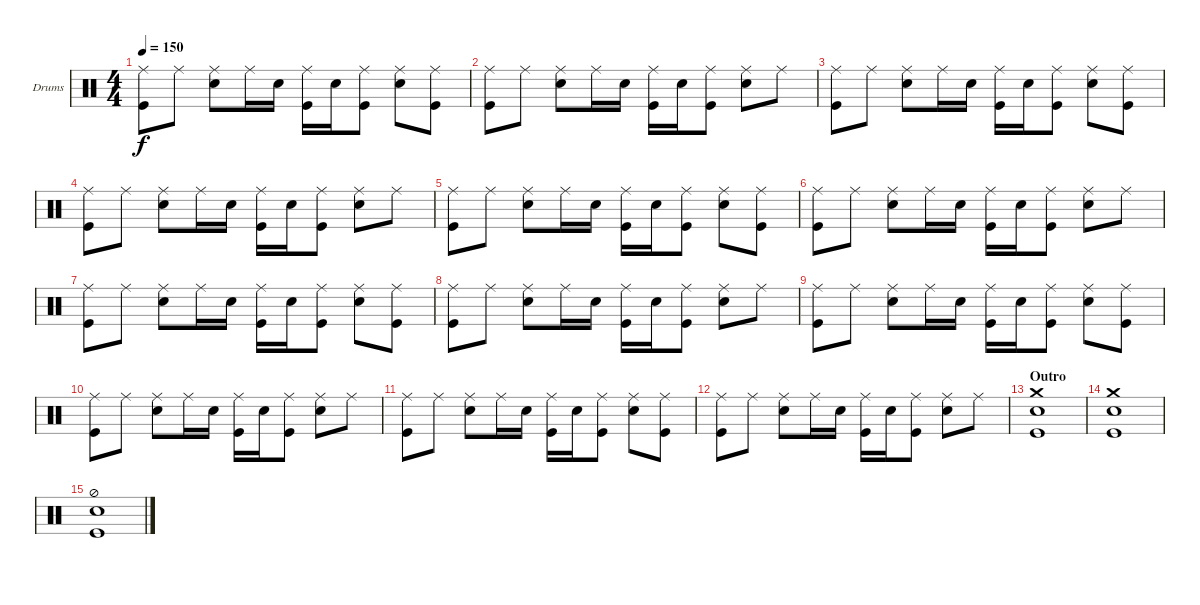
\bracketExtendMode groupsimilarinstruments
\firstSystemTrackNameOrientation horizontal
\otherSystemsTrackNameOrientation horizontal
\track ("Fabrizio" "Drums") {instrument percussion}
\staff {score}
\articulation defaults
\ts (4 4)
\tempo 150
\clef neutral
\ks c
("Ride (middle)" "Kick (hit)").8{dy f} "Ride (middle)".8 ("Ride (middle)" "Snare (hit) 2").8 "Ride (middle)".16 "Snare (hit) 2".16 ("Ride (middle)" "Kick (hit)").16 "Snare (hit) 2".16 ("Ride (middle)" "Kick (hit)").8 ("Ride (middle)" "Snare (hit) 2").8 ("Ride (middle)" "Kick (hit)").8 |
("Ride (middle)" "Kick (hit)").8 "Ride (middle)".8 ("Ride (middle)" "Snare (hit) 2").8 "Ride (middle)".16 "Snare (hit) 2".16 ("Ride (middle)" "Kick (hit)").16 "Snare (hit) 2".16 ("Ride (middle)" "Kick (hit)").8 ("Ride (middle)" "Snare (hit) 2").8 "Ride (middle)".8 |
("Ride (middle)" "Kick (hit)").8 "Ride (middle)".8 ("Ride (middle)" "Snare (hit) 2").8 "Ride (middle)".16 "Snare (hit) 2".16 ("Ride (middle)" "Kick (hit)").16 "Snare (hit) 2".16 ("Ride (middle)" "Kick (hit)").8 ("Ride (middle)" "Snare (hit) 2").8 ("Ride (middle)" "Kick (hit)").8 |
("Ride (middle)" "Kick (hit)").8 "Ride (middle)".8 ("Ride (middle)" "Snare (hit) 2").8 "Ride (middle)".16 "Snare (hit) 2".16 ("Ride (middle)" "Kick (hit)").16 "Snare (hit) 2".16 ("Ride (middle)" "Kick (hit)").8 ("Ride (middle)" "Snare (hit) 2").8 "Ride (middle)".8 |
("Ride (middle)" "Kick (hit)").8 "Ride (middle)".8 ("Ride (middle)" "Snare (hit) 2").8 "Ride (middle)".16 "Snare (hit) 2".16 ("Ride (middle)" "Kick (hit)").16 "Snare (hit) 2".16 ("Ride (middle)" "Kick (hit)").8 ("Ride (middle)" "Snare (hit) 2").8 ("Ride (middle)" "Kick (hit)").8 |
("Ride (middle)" "Kick (hit)").8 "Ride (middle)".8 ("Ride (middle)" "Snare (hit) 2").8 "Ride (middle)".16 "Snare (hit) 2".16 ("Ride (middle)" "Kick (hit)").16 "Snare (hit) 2".16 ("Ride (middle)" "Kick (hit)").8 ("Ride (middle)" "Snare (hit) 2").8 "Ride (middle)".8 |
("Ride (middle)" "Kick (hit)").8 "Ride (middle)".8 ("Ride (middle)" "Snare (hit) 2").8 "Ride (middle)".16 "Snare (hit) 2".16 ("Ride (middle)" "Kick (hit)").16 "Snare (hit) 2".16 ("Ride (middle)" "Kick (hit)").8 ("Ride (middle)" "Snare (hit) 2").8 ("Ride (middle)" "Kick (hit)").8 |
("Ride (middle)" "Kick (hit)").8 "Ride (middle)".8 ("Ride (middle)" "Snare (hit) 2").8 "Ride (middle)".16 "Snare (hit) 2".16 ("Ride (middle)" "Kick (hit)").16 "Snare (hit) 2".16 ("Ride (middle)" "Kick (hit)").8 ("Ride (middle)" "Snare (hit) 2").8 "Ride (middle)".8 |
("Ride (middle)" "Kick (hit)").8 "Ride (middle)".8 ("Ride (middle)" "Snare (hit) 2").8 "Ride (middle)".16 "Snare (hit) 2".16 ("Ride (middle)" "Kick (hit)").16 "Snare (hit) 2".16 ("Ride (middle)" "Kick (hit)").8 ("Ride (middle)" "Snare (hit) 2").8 ("Ride (middle)" "Kick (hit)").8 |
("Ride (middle)" "Kick (hit)").8 "Ride (middle)".8 ("Ride (middle)" "Snare (hit) 2").8 "Ride (middle)".16 "Snare (hit) 2".16 ("Ride (middle)" "Kick (hit)").16 "Snare (hit) 2".16 ("Ride (middle)" "Kick (hit)").8 ("Ride (middle)" "Snare (hit) 2").8 "Ride (middle)".8 |
("Ride (middle)" "Kick (hit)").8 "Ride (middle)".8 ("Ride (middle)" "Snare (hit) 2").8 "Ride (middle)".16 "Snare (hit) 2".16 ("Ride (middle)" "Kick (hit)").16 "Snare (hit) 2".16 ("Ride (middle)" "Kick (hit)").8 ("Ride (middle)" "Snare (hit) 2").8 ("Ride (middle)" "Kick (hit)").8 |
("Ride (middle)" "Kick (hit)").8 "Ride (middle)".8 ("Ride (middle)" "Snare (hit) 2").8 "Ride (middle)".16 "Snare (hit) 2".16 ("Ride (middle)" "Kick (hit)").16 "Snare (hit) 2".16 ("Ride (middle)" "Kick (hit)").8 ("Ride (middle)" "Snare (hit) 2").8 "Ride (middle)".8 |
\section ("" "Outro")
("Crash medium (hit)" "Kick (hit)" "Snare (hit) 2").1 |
("Crash medium (hit)" "Kick (hit)" "Snare (hit) 2").1 |
("Kick (hit)" "Snare (hit) 2" "Hi-Hat (half)").1
